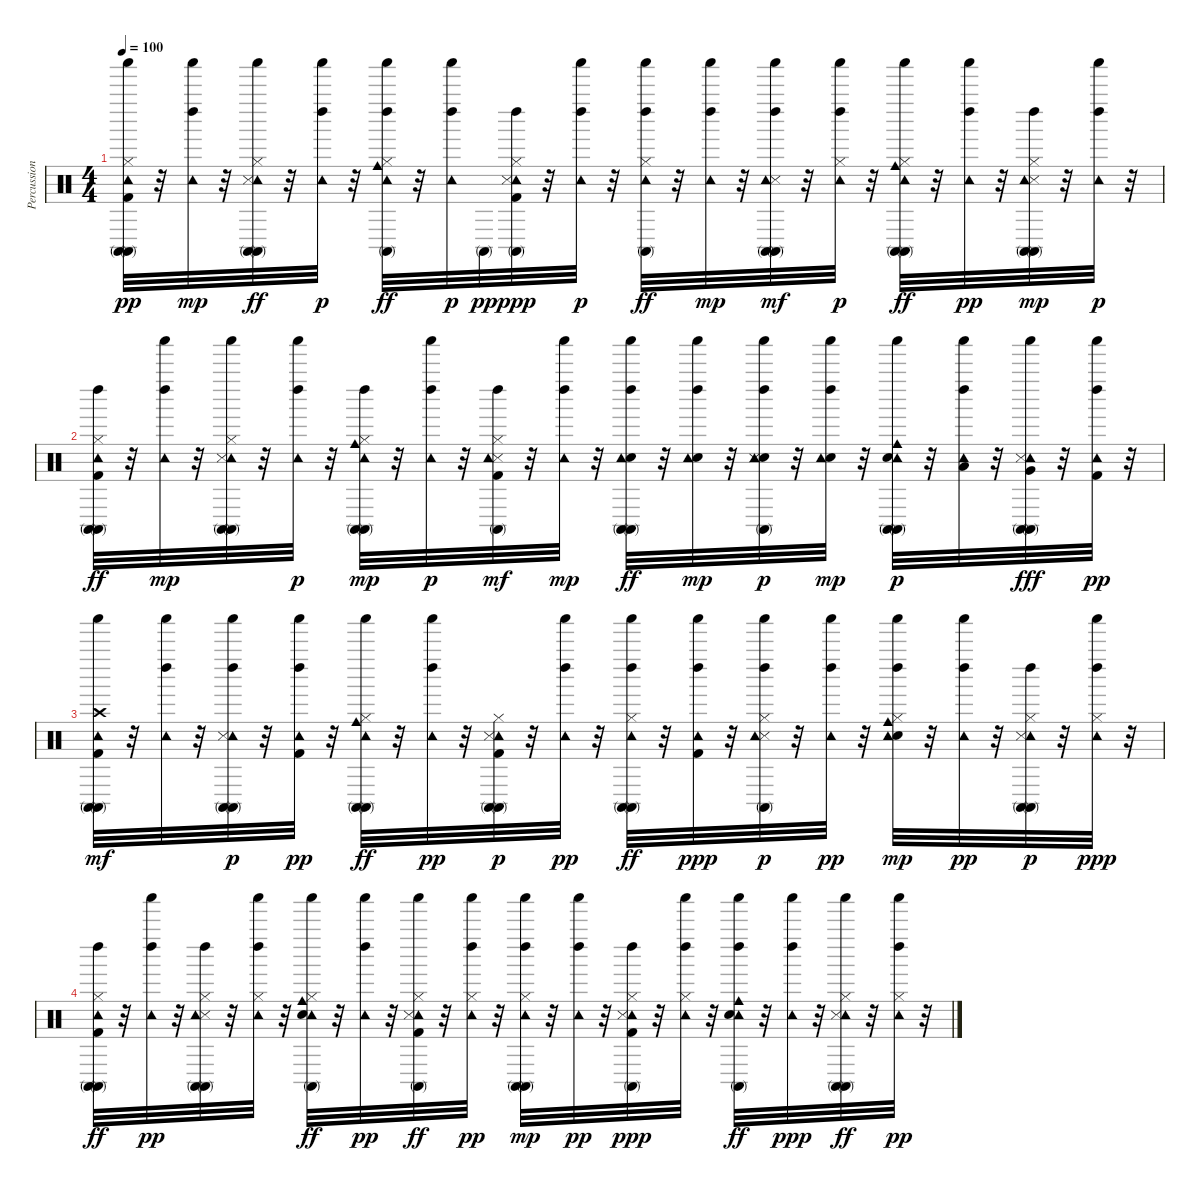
\track ("Percussions" "Percussion") {instrument percussion}
\staff {score}
\articulation defaults
\ts (4 4)
\tempo 100
\clef neutral
\ks c
("Conga high (mute)" "Conga high (mute)" "Kick (hit) 2" "Hi-Hat (closed)" "Shaker (hit)" "Tambourine (hit)").32{dy pp} r.32 ("Tambourine (hit)" "Shaker (hit)" "Left Maraca (hit)").32{dy mp} r.32 ("Conga high (mute)" "Conga high (mute)" "Hi-Hat (closed)" "Tambourine (hit)" "Shaker (hit)" "Snare (side stick) 3").32{dy ff} r.32 ("Tambourine (hit)" "Shaker (hit)" "Left Maraca (hit)").32{dy p} r.32 ("Conga high (mute)" "Hi-Hat (closed)" "Cowbell medium (hit)" "Shaker (hit)" "Tambourine (hit)" "Left Maraca (hit)").32{dy ff} r.32 ("Tambourine (hit)" "Shaker (hit)" "Left Maraca (hit)").32{dy p} "Conga high (mute)".32{dy pp} ("Conga high (mute)" "Tambourine (hit)" "Left Maraca (hit)" "Kick (hit) 2" "Snare (side stick) 3" "Hi-Hat (closed)").32{dy ppp} r.32 ("Tambourine (hit)" "Left Maraca (hit)" "Shaker (hit)").32{dy p} r.32 ("Conga high (mute)" "Hi-Hat (closed)" "Tambourine (hit)" "Shaker (hit)" "Left Maraca (hit)").32{dy ff} r.32 ("Tambourine (hit)" "Shaker (hit)" "Left Maraca (hit)").32{dy mp} r.32 ("Conga high (mute)" "Left Maraca (hit)" "Conga high (mute)" "Snare (side stick) 3" "Shaker (hit)" "Tambourine (hit)").32{dy mf} r.32 ("Tambourine (hit)" "Hi-Hat (closed)" "Left Maraca (hit)" "Shaker (hit)").32{dy p} r.32 ("Conga high (mute)" "Tambourine (hit)" "Hi-Hat (closed)" "Cowbell medium (hit)" "Conga high (mute)" "Shaker (hit)").32{dy ff} r.32 ("Tambourine (hit)" "Left Maraca (hit)" "Shaker (hit)").32{dy pp} r.32 ("Conga high (mute)" "Left Maraca (hit)" "Snare (side stick) 3" "Hi-Hat (closed)" "Tambourine (hit)" "Conga high (mute)").32{dy mp} r.32 ("Left Maraca (hit)" "Tambourine (hit)" "Shaker (hit)").32{dy p} r.32 |
("Conga high (mute)" "Tambourine (hit)" "Kick (hit) 2" "Hi-Hat (closed)" "Conga high (mute)" "Left Maraca (hit)").32{dy ff} r.32 ("Shaker (hit)" "Tambourine (hit)" "Left Maraca (hit)").32{dy mp} r.32 ("Conga high (mute)" "Hi-Hat (closed)" "Tambourine (hit)" "Snare (side stick) 3" "Shaker (hit)" "Conga high (mute)").32 r.32 ("Tambourine (hit)" "Left Maraca (hit)" "Shaker (hit)").32{dy p} r.32 ("Conga high (mute)" "Tambourine (hit)" "Hi-Hat (closed)" "Cowbell medium (hit)" "Left Maraca (hit)" "Conga high (mute)").32{dy mp} r.32 ("Tambourine (hit)" "Left Maraca (hit)" "Shaker (hit)").32{dy p} r.32 ("Conga high (mute)" "Snare (side stick) 3" "Tambourine (hit)" "Hi-Hat (closed)" "Left Maraca (hit)" "Kick (hit) 2").32{dy mf} r.32 ("Tambourine (hit)" "Left Maraca (hit)" "Shaker (hit)").32{dy mp} r.32 ("Conga high (mute)" "Electric Snare (hit)" "Tambourine (hit)" "Conga high (mute)" "Shaker (hit)" "Left Maraca (hit)").32{dy ff} r.32 ("Electric Snare (hit)" "Tambourine (hit)" "Shaker (hit)" "Left Maraca (hit)").32{dy mp} r.32 ("Conga high (mute)" "Electric Snare (hit)" "Tambourine (hit)" "Shaker (hit)" "Snare (side stick) 3" "Left Maraca (hit)").32{dy p} r.32 ("Electric Snare (hit)" "Tambourine (hit)" "Shaker (hit)" "Left Maraca (hit)").32{dy mp} r.32 ("Conga high (mute)" "Tambourine (hit)" "Electric Snare (hit)" "Cowbell medium (hit)" "Shaker (hit)" "Conga high (mute)").32{dy p} r.32 ("Low Tom (hit)" "Tambourine (hit)" "Left Maraca (hit)" "Shaker (hit)").32 r.32 ("Conga high (mute)" "Conga high (mute)" "Tambourine (hit)" "Shaker (hit)" "Snare (side stick) 3" "Very Low Tom (hit)").32{dy fff} r.32 ("Shaker (hit)" "Tambourine (hit)" "Left Maraca (hit)" "Kick (hit) 2").32{dy pp} r.32 |
("Conga high (mute)" "Tambourine (hit)" "Crash high (hit)" "Kick (hit) 2" "Conga high (mute)" "Shaker (hit)").32{dy mf} r.32 ("Tambourine (hit)" "Shaker (hit)" "Left Maraca (hit)").32 r.32 ("Conga high (mute)" "Tambourine (hit)" "Snare (side stick) 3" "Conga high (mute)" "Shaker (hit)" "Left Maraca (hit)").32{dy p} r.32 ("Kick (hit) 2" "Tambourine (hit)" "Shaker (hit)" "Left Maraca (hit)").32{dy pp} r.32 ("Conga high (mute)" "Tambourine (hit)" "Conga high (mute)" "Hi-Hat (closed)" "Cowbell medium (hit)" "Shaker (hit)").32{dy ff} r.32 ("Left Maraca (hit)" "Tambourine (hit)" "Shaker (hit)").32{dy pp} r.32 ("Conga high (mute)" "Tambourine (hit)" "Snare (side stick) 3" "Kick (hit) 2" "Hi-Hat (closed)" "Conga high (mute)").32{dy p} r.32 ("Tambourine (hit)" "Left Maraca (hit)" "Shaker (hit)").32{dy pp} r.32 ("Conga high (mute)" "Conga high (mute)" "Tambourine (hit)" "Hi-Hat (closed)" "Left Maraca (hit)" "Shaker (hit)").32{dy ff} r.32 ("Tambourine (hit)" "Left Maraca (hit)" "Shaker (hit)" "Kick (hit) 2").32{dy ppp} r.32 ("Snare (side stick) 3" "Tambourine (hit)" "Hi-Hat (closed)" "Left Maraca (hit)" "Shaker (hit)" "Conga high (mute)").32{dy p} r.32 ("Tambourine (hit)" "Left Maraca (hit)" "Shaker (hit)").32{dy pp} r.32 ("Electric Snare (hit)" "Tambourine (hit)" "Cowbell medium (hit)" "Hi-Hat (closed)" "Left Maraca (hit)" "Shaker (hit)").32{dy mp} r.32 ("Tambourine (hit)" "Left Maraca (hit)" "Shaker (hit)").32{dy pp} r.32 ("Tambourine (hit)" "Snare (side stick) 3" "Conga high (mute)" "Hi-Hat (closed)" "Conga high (mute)" "Left Maraca (hit)").32{dy p} r.32 ("Hi-Hat (closed)" "Tambourine (hit)" "Left Maraca (hit)" "Shaker (hit)").32{dy ppp} r.32 |
("Conga high (mute)" "Tambourine (hit)" "Hi-Hat (closed)" "Conga high (mute)" "Kick (hit) 2" "Left Maraca (hit)").32{dy ff} r.32 ("Tambourine (hit)" "Left Maraca (hit)" "Shaker (hit)").32{dy pp} r.32 ("Conga high (mute)" "Hi-Hat (closed)" "Conga high (mute)" "Snare (side stick) 3" "Tambourine (hit)" "Left Maraca (hit)").32 r.32 ("Hi-Hat (closed)" "Tambourine (hit)" "Left Maraca (hit)" "Shaker (hit)").32 r.32 ("Tambourine (hit)" "Hi-Hat (closed)" "Electric Snare (hit)" "Conga high (mute)" "Shaker (hit)" "Cowbell medium (hit)").32{dy ff} r.32 ("Tambourine (hit)" "Left Maraca (hit)" "Shaker (hit)").32{dy pp} r.32 ("Conga high (mute)" "Kick (hit) 2" "Tambourine (hit)" "Snare (side stick) 3" "Hi-Hat (closed)" "Shaker (hit)").32{dy ff} r.32 ("Tambourine (hit)" "Hi-Hat (closed)" "Left Maraca (hit)" "Shaker (hit)").32{dy pp} r.32 ("Tambourine (hit)" "Hi-Hat (closed)" "Left Maraca (hit)" "Shaker (hit)" "Conga high (mute)" "Conga high (mute)").32{dy mp} r.32 ("Tambourine (hit)" "Left Maraca (hit)" "Shaker (hit)").32{dy pp} r.32 ("Kick (hit) 2" "Tambourine (hit)" "Snare (side stick) 3" "Hi-Hat (closed)" "Conga high (mute)" "Left Maraca (hit)").32{dy ppp} r.32 ("Hi-Hat (closed)" "Left Maraca (hit)" "Tambourine (hit)" "Shaker (hit)").32 r.32 ("Tambourine (hit)" "Conga high (mute)" "Electric Snare (hit)" "Left Maraca (hit)" "Cowbell medium (hit)" "Shaker (hit)").32{dy ff} r.32 ("Tambourine (hit)" "Left Maraca (hit)" "Shaker (hit)").32{dy ppp} r.32 ("Conga high (mute)" "Tambourine (hit)" "Snare (side stick) 3" "Hi-Hat (closed)" "Conga high (mute)" "Shaker (hit)").32{dy ff} r.32 ("Hi-Hat (closed)" "Left Maraca (hit)" "Tambourine (hit)" "Shaker (hit)").32{dy pp} r.32
